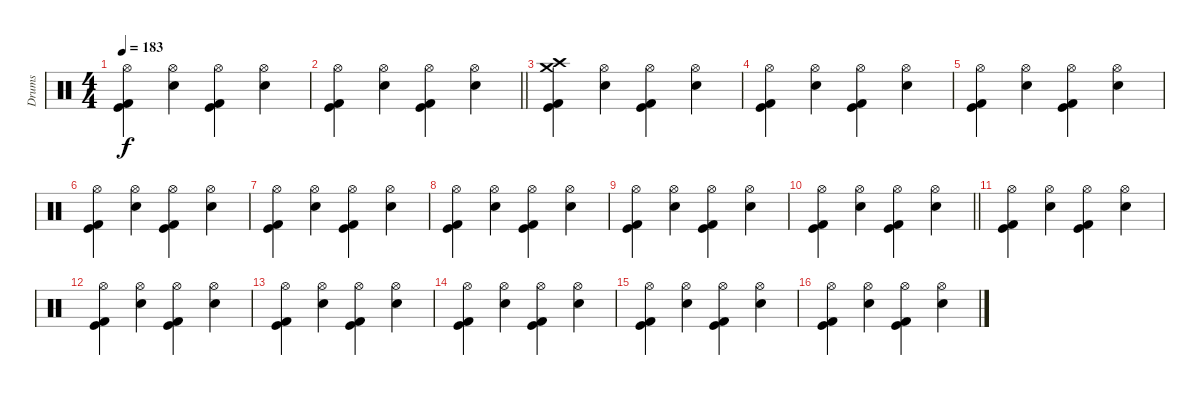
\track ("Drums" "Drums") {instrument percussion}
\staff
\articulation defaults
\ts (4 4)
\tempo 183
\clef neutral
\ks c
("Hi-Hat (open)" "Kick (hit)" "Kick (hit) 2").4{dy f} ("Hi-Hat (open)" "Snare (hit) 2").4 ("Hi-Hat (open)" "Kick (hit)" "Kick (hit) 2").4 ("Hi-Hat (open)" "Snare (hit) 2").4 |
\barLineRight lightlight
("Hi-Hat (open)" "Kick (hit)" "Kick (hit) 2").4 ("Hi-Hat (open)" "Snare (hit) 2").4 ("Hi-Hat (open)" "Kick (hit)" "Kick (hit) 2").4 ("Hi-Hat (open)" "Snare (hit) 2").4 |
("Crash high (hit)" "Crash medium (hit)" "Kick (hit)" "Kick (hit) 2").4 ("Hi-Hat (open)" "Snare (hit) 2").4 ("Hi-Hat (open)" "Kick (hit)" "Kick (hit) 2").4 ("Hi-Hat (open)" "Snare (hit) 2").4 |
("Hi-Hat (open)" "Kick (hit)" "Kick (hit) 2").4 ("Hi-Hat (open)" "Snare (hit) 2").4 ("Hi-Hat (open)" "Kick (hit)" "Kick (hit) 2").4 ("Hi-Hat (open)" "Snare (hit) 2").4 |
("Hi-Hat (open)" "Kick (hit)" "Kick (hit) 2").4 ("Hi-Hat (open)" "Snare (hit) 2").4 ("Hi-Hat (open)" "Kick (hit)" "Kick (hit) 2").4 ("Hi-Hat (open)" "Snare (hit) 2").4 |
("Hi-Hat (open)" "Kick (hit)" "Kick (hit) 2").4 ("Hi-Hat (open)" "Snare (hit) 2").4 ("Hi-Hat (open)" "Kick (hit)" "Kick (hit) 2").4 ("Hi-Hat (open)" "Snare (hit) 2").4 |
("Hi-Hat (open)" "Kick (hit)" "Kick (hit) 2").4 ("Hi-Hat (open)" "Snare (hit) 2").4 ("Hi-Hat (open)" "Kick (hit)" "Kick (hit) 2").4 ("Hi-Hat (open)" "Snare (hit) 2").4 |
("Hi-Hat (open)" "Kick (hit)" "Kick (hit) 2").4 ("Hi-Hat (open)" "Snare (hit) 2").4 ("Hi-Hat (open)" "Kick (hit)" "Kick (hit) 2").4 ("Hi-Hat (open)" "Snare (hit) 2").4 |
("Hi-Hat (open)" "Kick (hit)" "Kick (hit) 2").4 ("Hi-Hat (open)" "Snare (hit) 2").4 ("Hi-Hat (open)" "Kick (hit)" "Kick (hit) 2").4 ("Hi-Hat (open)" "Snare (hit) 2").4 |
\barLineRight lightlight
("Hi-Hat (open)" "Kick (hit)" "Kick (hit) 2").4 ("Hi-Hat (open)" "Snare (hit) 2").4 ("Hi-Hat (open)" "Kick (hit)" "Kick (hit) 2").4 ("Hi-Hat (open)" "Snare (hit) 2").4 |
("Hi-Hat (open)" "Kick (hit)" "Kick (hit) 2").4 ("Hi-Hat (open)" "Snare (hit) 2").4 ("Hi-Hat (open)" "Kick (hit)" "Kick (hit) 2").4 ("Hi-Hat (open)" "Snare (hit) 2").4 |
("Hi-Hat (open)" "Kick (hit)" "Kick (hit) 2").4 ("Hi-Hat (open)" "Snare (hit) 2").4 ("Hi-Hat (open)" "Kick (hit)" "Kick (hit) 2").4 ("Hi-Hat (open)" "Snare (hit) 2").4 |
("Hi-Hat (open)" "Kick (hit)" "Kick (hit) 2").4 ("Hi-Hat (open)" "Snare (hit) 2").4 ("Hi-Hat (open)" "Kick (hit)" "Kick (hit) 2").4 ("Hi-Hat (open)" "Snare (hit) 2").4 |
("Hi-Hat (open)" "Kick (hit)" "Kick (hit) 2").4 ("Hi-Hat (open)" "Snare (hit) 2").4 ("Hi-Hat (open)" "Kick (hit)" "Kick (hit) 2").4 ("Hi-Hat (open)" "Snare (hit) 2").4 |
("Hi-Hat (open)" "Kick (hit)" "Kick (hit) 2").4 ("Hi-Hat (open)" "Snare (hit) 2").4 ("Hi-Hat (open)" "Kick (hit)" "Kick (hit) 2").4 ("Hi-Hat (open)" "Snare (hit) 2").4 |
("Hi-Hat (open)" "Kick (hit)" "Kick (hit) 2").4 ("Hi-Hat (open)" "Snare (hit) 2").4 ("Hi-Hat (open)" "Kick (hit)" "Kick (hit) 2").4 ("Hi-Hat (open)" "Snare (hit) 2").4
